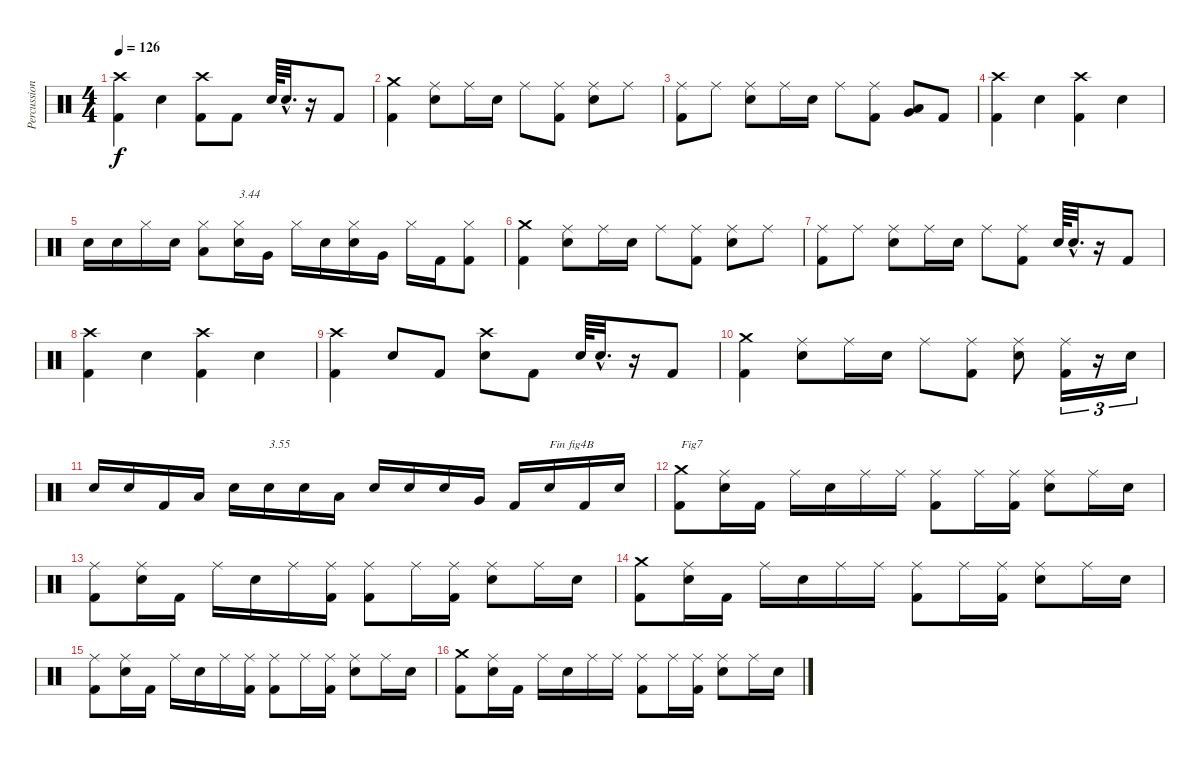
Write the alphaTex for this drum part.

\track ("Percussions" "Percussion") {instrument percussion}
\staff {score}
\articulation defaults
\ts (4 4)
\tempo 126
\clef neutral
\ks c
("Kick (hit) 2" "Crash high (hit)").4{dy f} "Electric Snare (hit)".4 ("Kick (hit) 2" "Crash high (hit)").8 "Kick (hit) 2".8 "Electric Snare (hit)".64 "Electric Snare (hit)"{hac}.32{d} r.16 "Kick (hit) 2".8 |
("Kick (hit) 2" "Crash medium (hit)").4 ("Electric Snare (hit)" "Ride (middle)").8 "Ride (middle)".16 "Electric Snare (hit)".16 "Ride (middle)".8 ("Kick (hit) 2" "Ride (middle)").8 ("Electric Snare (hit)" "Ride (middle)").8 "Ride (middle)".8 |
("Kick (hit) 2" "Ride (middle)").8 "Ride (middle)".8 ("Electric Snare (hit)" "Ride (middle)").8 "Ride (middle)".16 "Electric Snare (hit)".16 "Ride (middle)".8 ("Kick (hit) 2" "Ride (middle)").8 ("Very Low Tom (hit)" "Low Tom (hit)").8 "Kick (hit) 2".8 |
("Kick (hit) 2" "Crash high (hit)").4 "Electric Snare (hit)".4 ("Kick (hit) 2" "Crash high (hit)").4 "Electric Snare (hit)".4 |
"Electric Snare (hit)".16 "Electric Snare (hit)".16 "Hi-Hat (closed)".16 "Electric Snare (hit)".16 ("Low Tom (hit)" "Hi-Hat (closed)").8 ("Electric Snare (hit)" "Hi-Hat (closed)").16{txt "3.44"} "Very Low Tom (hit)".16 "Hi-Hat (closed)".16 "Electric Snare (hit)".16 ("Electric Snare (hit)" "Hi-Hat (closed)").16 "Very Low Tom (hit)".16 "Hi-Hat (closed)".16 "Kick (hit) 2".16 ("Kick (hit) 2" "Hi-Hat (closed)").8 |
("Kick (hit) 2" "Crash medium (hit)").4 ("Electric Snare (hit)" "Ride (middle)").8 "Ride (middle)".16 "Electric Snare (hit)".16 "Ride (middle)".8 ("Kick (hit) 2" "Ride (middle)").8 ("Electric Snare (hit)" "Ride (middle)").8 "Ride (middle)".8 |
("Kick (hit) 2" "Ride (middle)").8 "Ride (middle)".8 ("Electric Snare (hit)" "Ride (middle)").8 "Ride (middle)".16 "Electric Snare (hit)".16 "Ride (middle)".8 ("Kick (hit) 2" "Ride (middle)").8 "Electric Snare (hit)".64 "Electric Snare (hit)"{hac}.32{d} r.16 "Kick (hit) 2".8 |
("Kick (hit) 2" "Crash high (hit)").4 "Electric Snare (hit)".4 ("Kick (hit) 2" "Crash high (hit)").4 "Electric Snare (hit)".4 |
("Kick (hit) 2" "Crash high (hit)").4 "Electric Snare (hit)".8 "Kick (hit) 2".8 ("Electric Snare (hit)" "Crash high (hit)").8 "Kick (hit) 2".8 "Electric Snare (hit)".64 "Electric Snare (hit)"{hac}.32{d} r.16 "Kick (hit) 2".8 |
("Kick (hit) 2" "Crash medium (hit)").4 ("Electric Snare (hit)" "Ride (middle)").8 "Ride (middle)".16 "Electric Snare (hit)".16 "Ride (middle)".8 ("Kick (hit) 2" "Ride (middle)").8 ("Electric Snare (hit)" "Ride (middle)").8 ("Kick (hit) 2" "Ride (middle)").16{tu (3 2)} r.16{tu (3 2)} "Electric Snare (hit)".16{tu (3 2)} |
"Electric Snare (hit)".16 "Electric Snare (hit)".16 "Kick (hit) 2".16 "Low Floor Tom (hit)".16 "Electric Snare (hit)".16 "Electric Snare (hit)".16{txt "3.55"} "Electric Snare (hit)".16 "Low Tom (hit)".16 "Electric Snare (hit)".16 "Electric Snare (hit)".16 "Electric Snare (hit)".16 "Very Low Tom (hit)".16 "Kick (hit) 2".16 "Electric Snare (hit)".16{txt "Fin fig4B"} "Kick (hit) 2".16 "Electric Snare (hit)".16 |
("Kick (hit) 2" "Crash medium (hit)").8{txt "Fig7"} ("Electric Snare (hit)" "Ride (middle)").16 "Kick (hit) 2".16 "Ride (middle)".16 "Electric Snare (hit)".16 "Ride (middle)".16 "Ride (middle)".16 ("Kick (hit) 2" "Ride (middle)").8 "Ride (middle)".16 ("Kick (hit) 2" "Ride (middle)").16 ("Electric Snare (hit)" "Ride (middle)").8 "Ride (middle)".16 "Electric Snare (hit)".16 |
("Kick (hit) 2" "Ride (middle)").8 ("Electric Snare (hit)" "Ride (middle)").16 "Kick (hit) 2".16 "Ride (middle)".16 "Electric Snare (hit)".16 "Ride (middle)".16 ("Kick (hit) 2" "Ride (middle)").16 ("Kick (hit) 2" "Ride (middle)").8 "Ride (middle)".16 ("Kick (hit) 2" "Ride (middle)").16 ("Electric Snare (hit)" "Ride (middle)").8 "Ride (middle)".16 "Electric Snare (hit)".16 |
("Kick (hit) 2" "Crash medium (hit)").8 ("Electric Snare (hit)" "Ride (middle)").16 "Kick (hit) 2".16 "Ride (middle)".16 "Electric Snare (hit)".16 "Ride (middle)".16 "Ride (middle)".16 ("Kick (hit) 2" "Ride (middle)").8 "Ride (middle)".16 ("Kick (hit) 2" "Ride (middle)").16 ("Electric Snare (hit)" "Ride (middle)").8 "Ride (middle)".16 "Electric Snare (hit)".16 |
("Kick (hit) 2" "Ride (middle)").8 ("Electric Snare (hit)" "Ride (middle)").16 "Kick (hit) 2".16 "Ride (middle)".16 "Electric Snare (hit)".16 "Ride (middle)".16 ("Kick (hit) 2" "Ride (middle)").16 ("Kick (hit) 2" "Ride (middle)").8 "Ride (middle)".16 ("Kick (hit) 2" "Ride (middle)").16 ("Electric Snare (hit)" "Ride (middle)").8 "Ride (middle)".16 "Electric Snare (hit)".16 |
("Kick (hit) 2" "Crash medium (hit)").8 ("Electric Snare (hit)" "Ride (middle)").16 "Kick (hit) 2".16 "Ride (middle)".16 "Electric Snare (hit)".16 "Ride (middle)".16 "Ride (middle)".16 ("Kick (hit) 2" "Ride (middle)").8 "Ride (middle)".16 ("Kick (hit) 2" "Ride (middle)").16 ("Electric Snare (hit)" "Ride (middle)").8 "Ride (middle)".16 "Electric Snare (hit)".16
